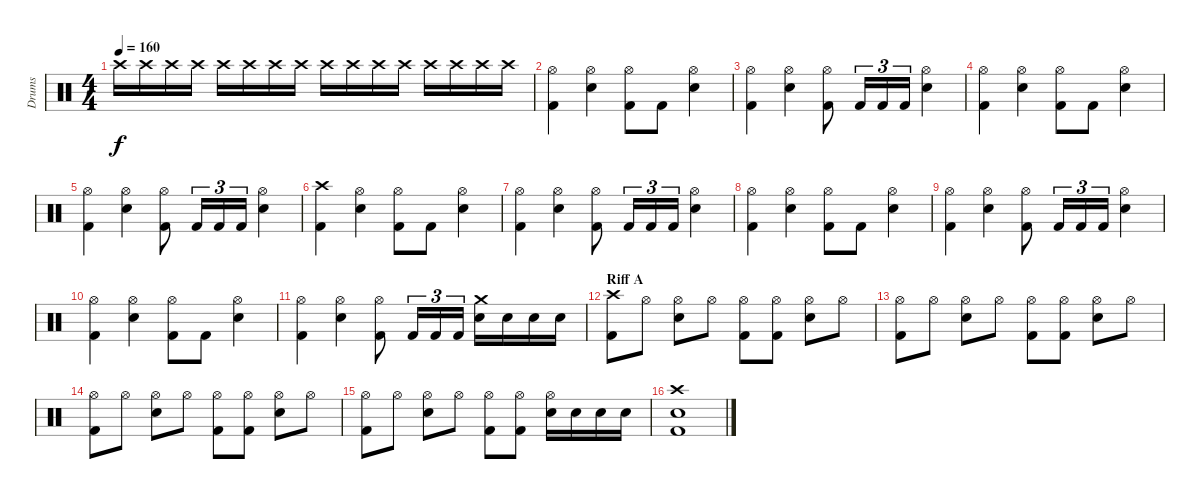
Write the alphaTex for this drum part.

\track ("Drums" "Drums") {instrument percussion}
\staff {score}
\articulation defaults
\ts (4 4)
\tempo 160
\clef neutral
\ks c "Crash high (hit)".16{dy f volume 0} "Crash high (hit)".16{volume 16} "Crash high (hit)".16 "Crash high (hit)".16 "Crash high (hit)".16 "Crash high (hit)".16 "Crash high (hit)".16 "Crash high (hit)".16 "Crash high (hit)".16 "Crash high (hit)".16 "Crash high (hit)".16 "Crash high (hit)".16 "Crash high (hit)".16 "Crash high (hit)".16 "Crash high (hit)".16 "Crash high (hit)".16
|
("Hi-Hat (open)" "Kick (hit) 2").4 ("Hi-Hat (open)" "Electric Snare (hit)").4 ("Hi-Hat (open)" "Kick (hit) 2").8 "Kick (hit) 2".8 ("Hi-Hat (open)" "Electric Snare (hit)").4 |
("Hi-Hat (open)" "Kick (hit) 2").4 ("Hi-Hat (open)" "Electric Snare (hit)").4 ("Hi-Hat (open)" "Kick (hit) 2").8 "Kick (hit) 2".16{tu (3 2)} "Kick (hit) 2".16{tu (3 2)} "Kick (hit) 2".16{tu (3 2)} ("Hi-Hat (open)" "Electric Snare (hit)").4 |
("Hi-Hat (open)" "Kick (hit) 2").4 ("Hi-Hat (open)" "Electric Snare (hit)").4 ("Hi-Hat (open)" "Kick (hit) 2").8 "Kick (hit) 2".8 ("Hi-Hat (open)" "Electric Snare (hit)").4 |
("Hi-Hat (open)" "Kick (hit) 2").4 ("Hi-Hat (open)" "Electric Snare (hit)").4 ("Hi-Hat (open)" "Kick (hit) 2").8 "Kick (hit) 2".16{tu (3 2)} "Kick (hit) 2".16{tu (3 2)} "Kick (hit) 2".16{tu (3 2)} ("Hi-Hat (open)" "Electric Snare (hit)").4 |
("Crash high (hit)" "Kick (hit) 2").4 ("Hi-Hat (open)" "Electric Snare (hit)").4 ("Hi-Hat (open)" "Kick (hit) 2").8 "Kick (hit) 2".8 ("Hi-Hat (open)" "Electric Snare (hit)").4 |
("Hi-Hat (open)" "Kick (hit) 2").4 ("Hi-Hat (open)" "Electric Snare (hit)").4 ("Hi-Hat (open)" "Kick (hit) 2").8 "Kick (hit) 2".16{tu (3 2)} "Kick (hit) 2".16{tu (3 2)} "Kick (hit) 2".16{tu (3 2)} ("Hi-Hat (open)" "Electric Snare (hit)").4 |
("Hi-Hat (open)" "Kick (hit) 2").4 ("Hi-Hat (open)" "Electric Snare (hit)").4 ("Hi-Hat (open)" "Kick (hit) 2").8 "Kick (hit) 2".8 ("Hi-Hat (open)" "Electric Snare (hit)").4 |
("Hi-Hat (open)" "Kick (hit) 2").4 ("Hi-Hat (open)" "Electric Snare (hit)").4 ("Hi-Hat (open)" "Kick (hit) 2").8 "Kick (hit) 2".16{tu (3 2)} "Kick (hit) 2".16{tu (3 2)} "Kick (hit) 2".16{tu (3 2)} ("Hi-Hat (open)" "Electric Snare (hit)").4 |
("Hi-Hat (open)" "Kick (hit) 2").4 ("Hi-Hat (open)" "Electric Snare (hit)").4 ("Hi-Hat (open)" "Kick (hit) 2").8 "Kick (hit) 2".8 ("Hi-Hat (open)" "Electric Snare (hit)").4 |
("Hi-Hat (open)" "Kick (hit) 2").4 ("Hi-Hat (open)" "Electric Snare (hit)").4 ("Hi-Hat (open)" "Kick (hit) 2").8 "Kick (hit) 2".16{tu (3 2)} "Kick (hit) 2".16{tu (3 2)} "Kick (hit) 2".16{tu (3 2)} ("Crash medium (hit)" "Electric Snare (hit)").16 "Electric Snare (hit)".16 "Electric Snare (hit)".16 "Electric Snare (hit)".16 |
\section ("" "Riff A")
("Crash high (hit)" "Kick (hit) 2").8 "Hi-Hat (open)".8 ("Hi-Hat (open)" "Electric Snare (hit)").8 "Hi-Hat (open)".8 ("Hi-Hat (open)" "Kick (hit) 2").8 ("Hi-Hat (open)" "Kick (hit) 2").8 ("Hi-Hat (open)" "Electric Snare (hit)").8 "Hi-Hat (open)".8 |
("Hi-Hat (open)" "Kick (hit) 2").8 "Hi-Hat (open)".8 ("Hi-Hat (open)" "Electric Snare (hit)").8 "Hi-Hat (open)".8 ("Hi-Hat (open)" "Kick (hit) 2").8 ("Hi-Hat (open)" "Kick (hit) 2").8 ("Hi-Hat (open)" "Electric Snare (hit)").8 "Hi-Hat (open)".8 |
("Hi-Hat (open)" "Kick (hit) 2").8 "Hi-Hat (open)".8 ("Hi-Hat (open)" "Electric Snare (hit)").8 "Hi-Hat (open)".8 ("Hi-Hat (open)" "Kick (hit) 2").8 ("Hi-Hat (open)" "Kick (hit) 2").8 ("Hi-Hat (open)" "Electric Snare (hit)").8 "Hi-Hat (open)".8 |
("Hi-Hat (open)" "Kick (hit) 2").8 "Hi-Hat (open)".8 ("Hi-Hat (open)" "Electric Snare (hit)").8 "Hi-Hat (open)".8 ("Hi-Hat (open)" "Kick (hit) 2").8 ("Hi-Hat (open)" "Kick (hit) 2").8 ("Hi-Hat (open)" "Electric Snare (hit)").16 "Electric Snare (hit)".16 "Electric Snare (hit)".16 "Electric Snare (hit)".16 |
("Crash high (hit)" "Kick (hit) 2" "Electric Snare (hit)").1
